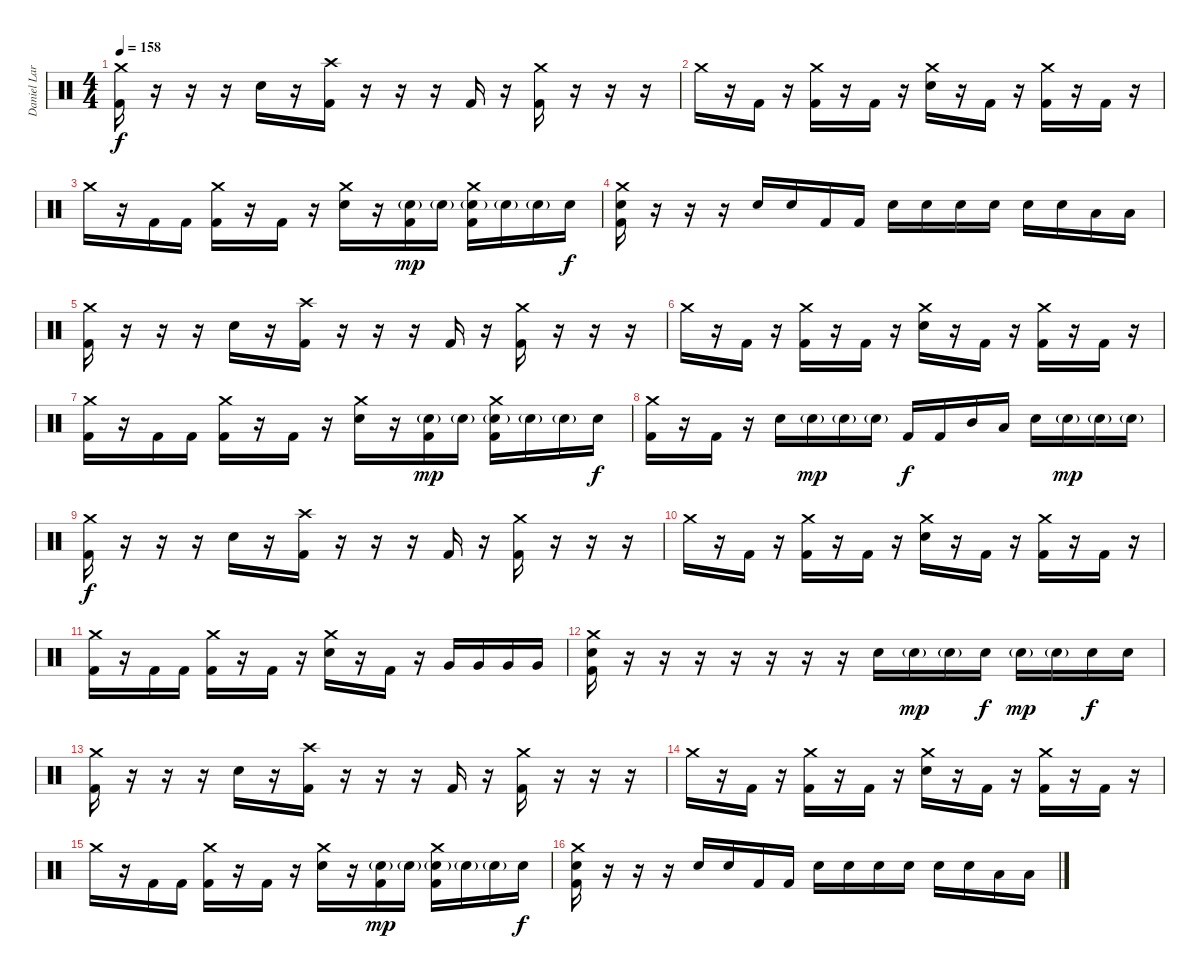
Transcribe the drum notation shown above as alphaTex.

\track ("Daniel Larsen" "Daniel Lar") {instrument percussion}
\staff {score}
\articulation defaults
\ts (4 4)
\tempo 158
\clef neutral
\ks c
("Crash medium (hit)" "Kick (hit) 2").16{dy f} r.16 r.16 r.16 "Electric Snare (hit)".16 r.16 ("Crash high (hit)" "Kick (hit) 2").16 r.16 r.16 r.16 "Kick (hit) 2".16 r.16 ("Crash medium (hit)" "Kick (hit) 2").16 r.16 r.16 r.16 |
"Crash medium (hit)".16 r.16 "Kick (hit) 2".16 r.16 ("Crash medium (hit)" "Kick (hit) 2").16 r.16 "Kick (hit) 2".16 r.16 ("Crash medium (hit)" "Electric Snare (hit)").16 r.16 "Kick (hit) 2".16 r.16 ("Crash medium (hit)" "Kick (hit) 2").16 r.16 "Kick (hit) 2".16 r.16 |
"Crash medium (hit)".16 r.16 "Kick (hit) 2".16 "Kick (hit) 2".16 ("Crash medium (hit)" "Kick (hit) 2").16 r.16 "Kick (hit) 2".16 r.16 ("Crash medium (hit)" "Electric Snare (hit)").16 r.16 ("Electric Snare (hit)"{g} "Kick (hit) 2").16{dy mp} "Electric Snare (hit)"{g}.16 ("Crash medium (hit)" "Electric Snare (hit)"{g} "Kick (hit) 2").16 "Electric Snare (hit)"{g}.16 "Electric Snare (hit)"{g}.16 "Electric Snare (hit)".16{dy f} |
("Crash medium (hit)" "Electric Snare (hit)" "Kick (hit) 2").16 r.16 r.16 r.16 "Electric Snare (hit)".16 "Electric Snare (hit)".16 "Kick (hit) 2".16 "Kick (hit) 2".16 "Electric Snare (hit)".16 "Electric Snare (hit)".16 "Electric Snare (hit)".16 "Electric Snare (hit)".16 "Electric Snare (hit)".16 "Electric Snare (hit)".16 "Low Tom (hit)".16 "Low Tom (hit)".16 |
("Crash medium (hit)" "Kick (hit) 2").16 r.16 r.16 r.16 "Electric Snare (hit)".16 r.16 ("Crash high (hit)" "Kick (hit) 2").16 r.16 r.16 r.16 "Kick (hit) 2".16 r.16 ("Crash medium (hit)" "Kick (hit) 2").16 r.16 r.16 r.16 |
"Crash medium (hit)".16 r.16 "Kick (hit) 2".16 r.16 ("Crash medium (hit)" "Kick (hit) 2").16 r.16 "Kick (hit) 2".16 r.16 ("Crash medium (hit)" "Electric Snare (hit)").16 r.16 "Kick (hit) 2".16 r.16 ("Crash medium (hit)" "Kick (hit) 2").16 r.16 "Kick (hit) 2".16 r.16 |
("Crash medium (hit)" "Kick (hit) 2").16 r.16 "Kick (hit) 2".16 "Kick (hit) 2".16 ("Crash medium (hit)" "Kick (hit) 2").16 r.16 "Kick (hit) 2".16 r.16 ("Crash medium (hit)" "Electric Snare (hit)").16 r.16 ("Electric Snare (hit)"{g} "Kick (hit) 2").16{dy mp} "Electric Snare (hit)"{g}.16 ("Crash medium (hit)" "Electric Snare (hit)"{g} "Kick (hit) 2").16 "Electric Snare (hit)"{g}.16 "Electric Snare (hit)"{g}.16 "Electric Snare (hit)".16{dy f} |
("Crash medium (hit)" "Kick (hit) 2").16 r.16 "Kick (hit) 2".16 r.16 "Electric Snare (hit)".16 "Electric Snare (hit)"{g}.16{dy mp} "Electric Snare (hit)"{g}.16 "Electric Snare (hit)"{g}.16 "Kick (hit) 2".16{dy f} "Kick (hit) 2".16 "Mid Tom (hit)".16 "Low Tom (hit)".16 "Electric Snare (hit)".16 "Electric Snare (hit)"{g}.16{dy mp} "Electric Snare (hit)"{g}.16 "Electric Snare (hit)"{g}.16 |
("Crash medium (hit)" "Kick (hit) 2").16{dy f} r.16 r.16 r.16 "Electric Snare (hit)".16 r.16 ("Crash high (hit)" "Kick (hit) 2").16 r.16 r.16 r.16 "Kick (hit) 2".16 r.16 ("Crash medium (hit)" "Kick (hit) 2").16 r.16 r.16 r.16 |
"Crash medium (hit)".16 r.16 "Kick (hit) 2".16 r.16 ("Crash medium (hit)" "Kick (hit) 2").16 r.16 "Kick (hit) 2".16 r.16 ("Crash medium (hit)" "Electric Snare (hit)").16 r.16 "Kick (hit) 2".16 r.16 ("Crash medium (hit)" "Kick (hit) 2").16 r.16 "Kick (hit) 2".16 r.16 |
("Crash medium (hit)" "Kick (hit) 2").16 r.16 "Kick (hit) 2".16 "Kick (hit) 2".16 ("Crash medium (hit)" "Kick (hit) 2").16 r.16 "Kick (hit) 2".16 r.16 ("Crash medium (hit)" "Electric Snare (hit)").16 r.16 "Kick (hit) 2".16 r.16 "Very Low Tom (hit)".16 "Very Low Tom (hit)".16 "Very Low Tom (hit)".16 "Very Low Tom (hit)".16 |
("Crash medium (hit)" "Electric Snare (hit)" "Kick (hit) 2").16 r.16 r.16 r.16 r.16 r.16 r.16 r.16 "Electric Snare (hit)".16 "Electric Snare (hit)"{g}.16{dy mp} "Electric Snare (hit)"{g}.16 "Electric Snare (hit)".16{dy f} "Electric Snare (hit)"{g}.16{dy mp} "Electric Snare (hit)"{g}.16 "Electric Snare (hit)".16{dy f} "Electric Snare (hit)".16 |
("Crash medium (hit)" "Kick (hit) 2").16 r.16 r.16 r.16 "Electric Snare (hit)".16 r.16 ("Crash high (hit)" "Kick (hit) 2").16 r.16 r.16 r.16 "Kick (hit) 2".16 r.16 ("Crash medium (hit)" "Kick (hit) 2").16 r.16 r.16 r.16 |
"Crash medium (hit)".16 r.16 "Kick (hit) 2".16 r.16 ("Crash medium (hit)" "Kick (hit) 2").16 r.16 "Kick (hit) 2".16 r.16 ("Crash medium (hit)" "Electric Snare (hit)").16 r.16 "Kick (hit) 2".16 r.16 ("Crash medium (hit)" "Kick (hit) 2").16 r.16 "Kick (hit) 2".16 r.16 |
"Crash medium (hit)".16 r.16 "Kick (hit) 2".16 "Kick (hit) 2".16 ("Crash medium (hit)" "Kick (hit) 2").16 r.16 "Kick (hit) 2".16 r.16 ("Crash medium (hit)" "Electric Snare (hit)").16 r.16 ("Electric Snare (hit)"{g} "Kick (hit) 2").16{dy mp} "Electric Snare (hit)"{g}.16 ("Crash medium (hit)" "Electric Snare (hit)"{g} "Kick (hit) 2").16 "Electric Snare (hit)"{g}.16 "Electric Snare (hit)"{g}.16 "Electric Snare (hit)".16{dy f} |
("Crash medium (hit)" "Electric Snare (hit)" "Kick (hit) 2").16 r.16 r.16 r.16 "Electric Snare (hit)".16 "Electric Snare (hit)".16 "Kick (hit) 2".16 "Kick (hit) 2".16 "Electric Snare (hit)".16 "Electric Snare (hit)".16 "Electric Snare (hit)".16 "Electric Snare (hit)".16 "Electric Snare (hit)".16 "Electric Snare (hit)".16 "Low Tom (hit)".16 "Low Tom (hit)".16
